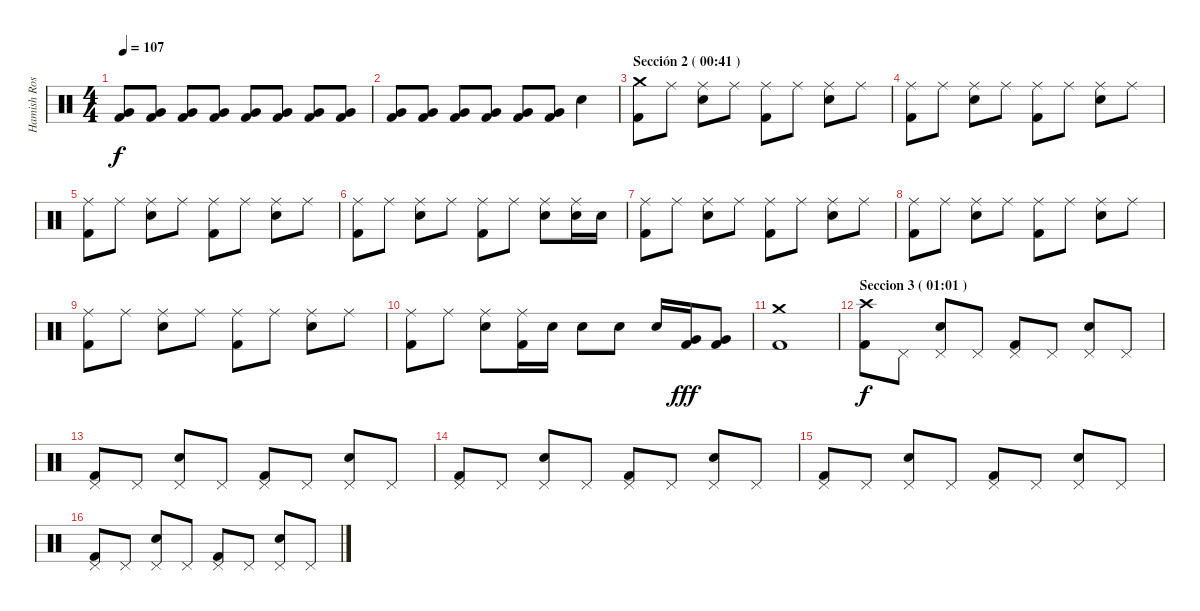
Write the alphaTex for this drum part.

\track ("Hamish Rosser" "Hamish Ros") {instrument percussion}
\staff {score}
\articulation defaults
\ts (4 4)
\tempo 107
\clef neutral
\ks c
("Very Low Tom (hit)" "Kick (hit) 2").8{dy f volume 16} ("Very Low Tom (hit)" "Kick (hit) 2").8 ("Very Low Tom (hit)" "Kick (hit) 2").8 ("Very Low Tom (hit)" "Kick (hit) 2").8 ("Very Low Tom (hit)" "Kick (hit) 2").8 ("Very Low Tom (hit)" "Kick (hit) 2").8 ("Very Low Tom (hit)" "Kick (hit) 2").8 ("Very Low Tom (hit)" "Kick (hit) 2").8 |
("Very Low Tom (hit)" "Kick (hit) 2").8 ("Very Low Tom (hit)" "Kick (hit) 2").8 ("Very Low Tom (hit)" "Kick (hit) 2").8 ("Very Low Tom (hit)" "Kick (hit) 2").8 ("Very Low Tom (hit)" "Kick (hit) 2").8 ("Very Low Tom (hit)" "Kick (hit) 2").8 "Electric Snare (hit)".4 |
\section ("" "Sección 2 ( 00:41 )")
("Crash medium (hit)" "Kick (hit) 2").8 "Ride (middle)".8 ("Ride (middle)" "Electric Snare (hit)").8 "Ride (middle)".8 ("Ride (middle)" "Kick (hit) 2").8 "Ride (middle)".8 ("Ride (middle)" "Electric Snare (hit)").8 "Ride (middle)".8 |
("Ride (middle)" "Kick (hit) 2").8 "Ride (middle)".8 ("Ride (middle)" "Electric Snare (hit)").8 "Ride (middle)".8 ("Ride (middle)" "Kick (hit) 2").8 "Ride (middle)".8 ("Ride (middle)" "Electric Snare (hit)").8 "Ride (middle)".8 |
("Ride (middle)" "Kick (hit) 2").8 "Ride (middle)".8 ("Ride (middle)" "Electric Snare (hit)").8 "Ride (middle)".8 ("Ride (middle)" "Kick (hit) 2").8 "Ride (middle)".8 ("Ride (middle)" "Electric Snare (hit)").8 "Ride (middle)".8 |
("Ride (middle)" "Kick (hit) 2").8 "Ride (middle)".8 ("Ride (middle)" "Electric Snare (hit)").8 "Ride (middle)".8 ("Ride (middle)" "Kick (hit) 2").8 "Ride (middle)".8 ("Ride (middle)" "Electric Snare (hit)").8 ("Ride (middle)" "Electric Snare (hit)").16 "Electric Snare (hit)".16 |
("Ride (middle)" "Kick (hit) 2").8 "Ride (middle)".8 ("Ride (middle)" "Electric Snare (hit)").8 "Ride (middle)".8 ("Ride (middle)" "Kick (hit) 2").8 "Ride (middle)".8 ("Ride (middle)" "Electric Snare (hit)").8 "Ride (middle)".8 |
("Ride (middle)" "Kick (hit) 2").8 "Ride (middle)".8 ("Ride (middle)" "Electric Snare (hit)").8 "Ride (middle)".8 ("Ride (middle)" "Kick (hit) 2").8 "Ride (middle)".8 ("Ride (middle)" "Electric Snare (hit)").8 "Ride (middle)".8 |
("Ride (middle)" "Kick (hit) 2").8 "Ride (middle)".8 ("Ride (middle)" "Electric Snare (hit)").8 "Ride (middle)".8 ("Ride (middle)" "Kick (hit) 2").8 "Ride (middle)".8 ("Ride (middle)" "Electric Snare (hit)").8 "Ride (middle)".8 |
("Ride (middle)" "Kick (hit) 2").8 "Ride (middle)".8 ("Ride (middle)" "Electric Snare (hit)").8 ("Ride (middle)" "Kick (hit) 2").16 "Electric Snare (hit)".16 "Electric Snare (hit)".8 "Electric Snare (hit)".8 "Electric Snare (hit)".16 ("Very Low Tom (hit)" "Kick (hit) 2").16{dy fff} ("Very Low Tom (hit)" "Kick (hit) 2").8 |
("Crash medium (hit)" "Kick (hit) 2").1 |
\section ("" "Seccion 3 ( 01:01 )")
("Crash high (hit)" "Kick (hit) 2").8{dy f} "Pedal Hi-Hat (hit)".8 ("Pedal Hi-Hat (hit)" "Electric Snare (hit)").8 "Pedal Hi-Hat (hit)".8 ("Pedal Hi-Hat (hit)" "Kick (hit) 2").8 "Pedal Hi-Hat (hit)".8 ("Pedal Hi-Hat (hit)" "Electric Snare (hit)").8 "Pedal Hi-Hat (hit)".8 |
("Pedal Hi-Hat (hit)" "Kick (hit) 2").8 "Pedal Hi-Hat (hit)".8 ("Pedal Hi-Hat (hit)" "Electric Snare (hit)").8 "Pedal Hi-Hat (hit)".8 ("Pedal Hi-Hat (hit)" "Kick (hit) 2").8 "Pedal Hi-Hat (hit)".8 ("Pedal Hi-Hat (hit)" "Electric Snare (hit)").8 "Pedal Hi-Hat (hit)".8 |
("Pedal Hi-Hat (hit)" "Kick (hit) 2").8 "Pedal Hi-Hat (hit)".8 ("Pedal Hi-Hat (hit)" "Electric Snare (hit)").8 "Pedal Hi-Hat (hit)".8 ("Pedal Hi-Hat (hit)" "Kick (hit) 2").8 "Pedal Hi-Hat (hit)".8 ("Pedal Hi-Hat (hit)" "Electric Snare (hit)").8 "Pedal Hi-Hat (hit)".8 |
("Pedal Hi-Hat (hit)" "Kick (hit) 2").8 "Pedal Hi-Hat (hit)".8 ("Pedal Hi-Hat (hit)" "Electric Snare (hit)").8 "Pedal Hi-Hat (hit)".8 ("Pedal Hi-Hat (hit)" "Kick (hit) 2").8 "Pedal Hi-Hat (hit)".8 ("Pedal Hi-Hat (hit)" "Electric Snare (hit)").8 "Pedal Hi-Hat (hit)".8 |
("Pedal Hi-Hat (hit)" "Kick (hit) 2").8 "Pedal Hi-Hat (hit)".8 ("Pedal Hi-Hat (hit)" "Electric Snare (hit)").8 "Pedal Hi-Hat (hit)".8 ("Pedal Hi-Hat (hit)" "Kick (hit) 2").8 "Pedal Hi-Hat (hit)".8 ("Pedal Hi-Hat (hit)" "Electric Snare (hit)").8 "Pedal Hi-Hat (hit)".8
